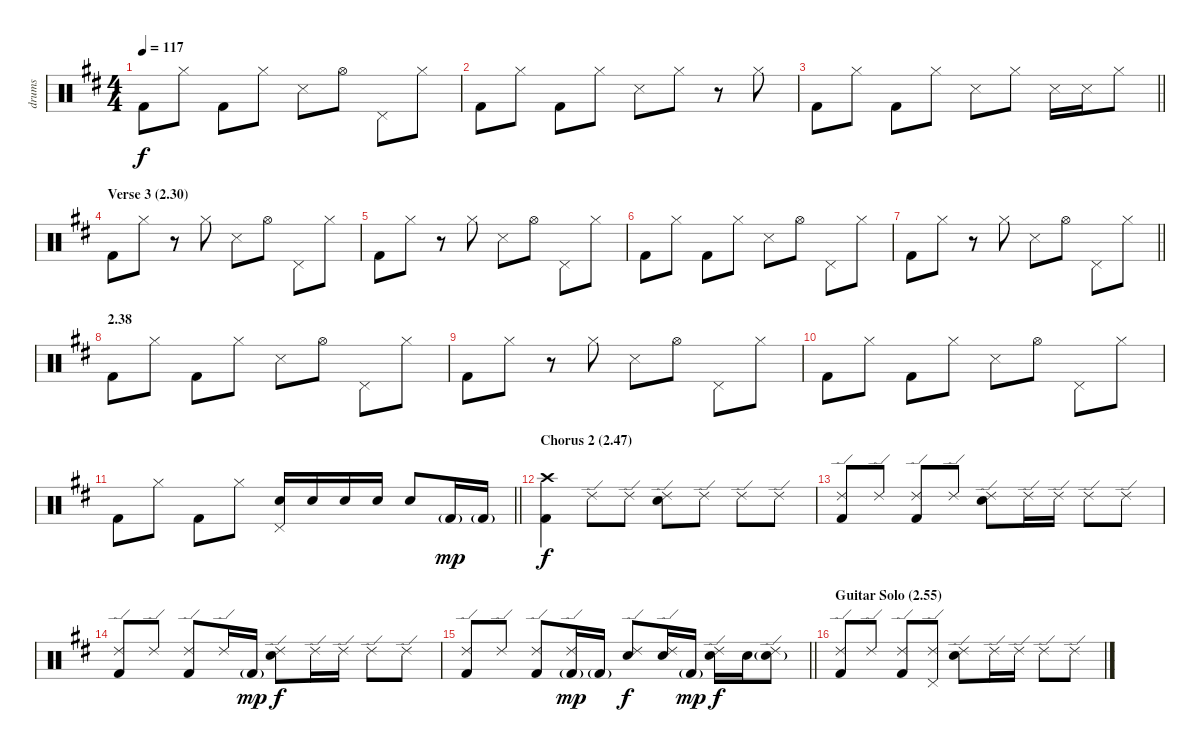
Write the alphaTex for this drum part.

\track ("drums" "drums") {instrument percussion}
\staff {score}
\articulation defaults
\ts (4 4)
\tempo 117
\clef neutral
\ks d "Kick (hit) 2".8{dy f} "Hi-Hat (closed)".8 "Kick (hit) 2".8 "Hi-Hat (closed)".8 "Snare (side stick) 3".8 "Hi-Hat (open)".8 "Pedal Hi-Hat (hit)".8 "Hi-Hat (closed)".8
|
"Kick (hit) 2".8 "Hi-Hat (closed)".8 "Kick (hit) 2".8 "Hi-Hat (closed)".8 "Snare (side stick) 3".8 "Hi-Hat (closed)".8 r.8 "Hi-Hat (closed)".8 |
\barLineRight lightlight "Kick (hit) 2".8 "Hi-Hat (closed)".8 "Kick (hit) 2".8 "Hi-Hat (closed)".8 "Snare (side stick) 3".8 "Hi-Hat (closed)".8 "Snare (side stick) 3".16 "Snare (side stick) 3".16 "Hi-Hat (closed)".8
|
\section ("" "Verse 3 (2.30)")
"Kick (hit) 2".8 "Hi-Hat (closed)".8 r.8 "Hi-Hat (closed)".8 "Snare (side stick) 3".8 "Hi-Hat (open)".8 "Pedal Hi-Hat (hit)".8 "Hi-Hat (closed)".8 |
"Kick (hit) 2".8 "Hi-Hat (closed)".8 r.8 "Hi-Hat (closed)".8 "Snare (side stick) 3".8 "Hi-Hat (open)".8 "Pedal Hi-Hat (hit)".8 "Hi-Hat (closed)".8 |
"Kick (hit) 2".8 "Hi-Hat (closed)".8 "Kick (hit) 2".8 "Hi-Hat (closed)".8 "Snare (side stick) 3".8 "Hi-Hat (open)".8 "Pedal Hi-Hat (hit)".8 "Hi-Hat (closed)".8 |
\barLineRight lightlight "Kick (hit) 2".8 "Hi-Hat (closed)".8
r.8 "Hi-Hat (closed)".8 "Snare (side stick) 3".8 "Hi-Hat (open)".8 "Pedal Hi-Hat (hit)".8 "Hi-Hat (closed)".8 |
\section ("" "2.38")
"Kick (hit) 2".8 "Hi-Hat (closed)".8 "Kick (hit) 2".8 "Hi-Hat (closed)".8 "Snare (side stick) 3".8 "Hi-Hat (open)".8 "Pedal Hi-Hat (hit)".8 "Hi-Hat (closed)".8 |
"Kick (hit) 2".8 "Hi-Hat (closed)".8 r.8 "Hi-Hat (closed)".8 "Snare (side stick) 3".8 "Hi-Hat (open)".8 "Pedal Hi-Hat (hit)".8 "Hi-Hat (closed)".8 |
"Kick (hit) 2".8 "Hi-Hat (closed)".8 "Kick (hit) 2".8 "Hi-Hat (closed)".8 "Snare (side stick) 3".8 "Hi-Hat (open)".8 "Pedal Hi-Hat (hit)".8 "Hi-Hat (closed)".8 |
\barLineRight lightlight "Kick (hit) 2".8 "Hi-Hat (closed)".8 "Kick (hit) 2".8 "Hi-Hat (closed)".8
("Pedal Hi-Hat (hit)" "Electric Snare (hit)").16 "Electric Snare (hit)".16 "Electric Snare (hit)".16 "Electric Snare (hit)".16 "Electric Snare (hit)".8 "Kick (hit) 2"{g}.16{dy mp} "Kick (hit) 2"{g}.16 |
\section ("" "Chorus 2 (2.47)")
("Crash high (hit)" "Kick (hit) 2").4{dy f} "Ride (edge) 2".8 "Ride (edge) 2".8 ("Ride (edge) 2" "Electric Snare (hit)").8 "Ride (edge) 2".8 "Ride (edge) 2".8 "Ride (edge) 2".8 |
("Ride (edge) 2" "Kick (hit) 2").8 "Ride (edge) 2".8 ("Ride (edge) 2" "Kick (hit) 2").8 "Ride (edge) 2".8 ("Ride (edge) 2" "Electric Snare (hit)").8 "Ride (edge) 2".16 "Ride (edge) 2".16 "Ride (edge) 2".8 "Ride (edge) 2".8 |
("Ride (edge) 2" "Kick (hit) 2").8 "Ride (edge) 2".8 ("Ride (edge) 2" "Kick (hit) 2").8 "Ride (edge) 2".16 "Kick (hit) 2"{g}.16{dy mp} ("Ride (edge) 2" "Electric Snare (hit)").8{dy f} "Ride (edge) 2".16 "Ride (edge) 2".16 "Ride (edge) 2".8 "Ride (edge) 2".8 |
\barLineRight lightlight
("Ride (edge) 2" "Kick (hit) 2").8 "Ride (edge) 2".8 ("Ride (edge) 2" "Kick (hit) 2").8 ("Ride (edge) 2" "Kick (hit) 2"{g}).16{dy mp} "Kick (hit) 2"{g}.16 ("Ride (edge) 2" "Electric Snare (hit)").8{dy f} ("Ride (edge) 2" "Electric Snare (hit)").16 "Kick (hit) 2"{g}.16{dy mp} ("Ride (edge) 2" "Electric Snare (hit)").16{dy f} "Electric Snare (hit)".16 ("Ride (edge) 2" "Electric Snare (hit)"{g}).8 |
\section ("" "Guitar Solo (2.55)")
("Ride (edge) 2" "Kick (hit) 2").8 "Ride (edge) 2".8 ("Ride (edge) 2" "Kick (hit) 2").8 ("Ride (edge) 2" "Pedal Hi-Hat (hit)").8 ("Ride (edge) 2" "Electric Snare (hit)").8 "Ride (edge) 2".16 "Ride (edge) 2".16 "Ride (edge) 2".8 "Ride (edge) 2".8
